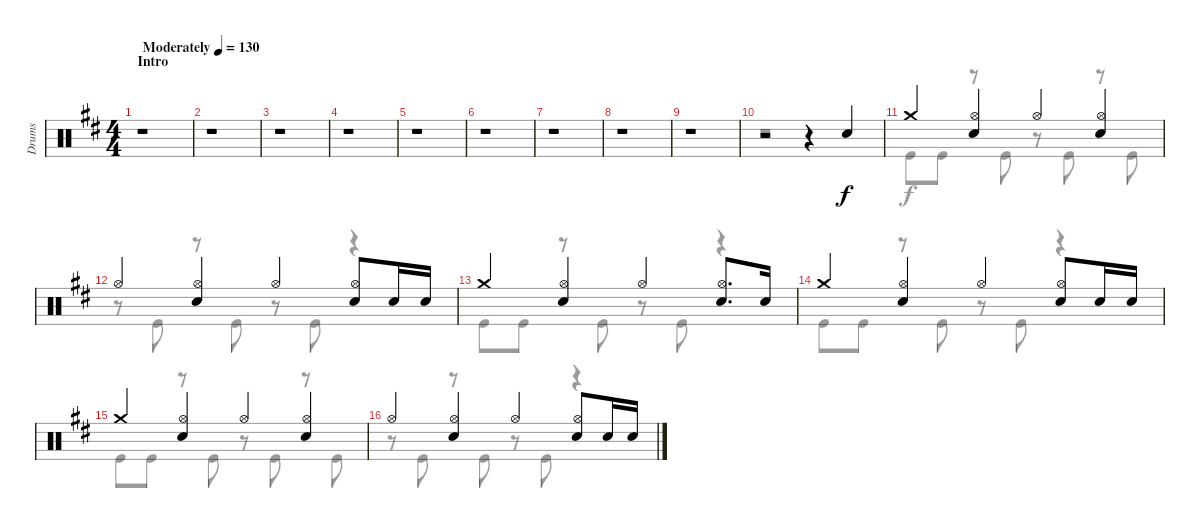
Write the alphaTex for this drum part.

\track ("Drums" "Drums") {instrument percussion}
\staff {score}
\articulation defaults
\voice
\ts (4 4)
\section ("" "Intro")
\tempo (130 "Moderately")
\clef neutral
\ks d
r.1{dy f} |
r.1 |
r.1 |
r.1 |
r.1 |
r.1 |
r.1 |
r.1 |
r.1 |
r.2 r.4 "Electric Snare (hit)".4 |
"Crash medium (hit)".4 ("Hi-Hat (open)" "Electric Snare (hit)").4 "Hi-Hat (open)".4 ("Hi-Hat (open)" "Electric Snare (hit)").4 |
"Hi-Hat (open)".4 ("Hi-Hat (open)" "Electric Snare (hit)").4 "Hi-Hat (open)".4 ("Hi-Hat (open)" "Electric Snare (hit)").8 "Electric Snare (hit)".16 "Electric Snare (hit)".16 |
"Crash medium (hit)".4 ("Hi-Hat (open)" "Electric Snare (hit)").4 "Hi-Hat (open)".4 ("Hi-Hat (open)" "Electric Snare (hit)").8{d} "Electric Snare (hit)".16 |
"Crash medium (hit)".4 ("Hi-Hat (open)" "Electric Snare (hit)").4 "Hi-Hat (open)".4 ("Hi-Hat (open)" "Electric Snare (hit)").8 "Electric Snare (hit)".16 "Electric Snare (hit)".16 |
"Crash medium (hit)".4 ("Hi-Hat (open)" "Electric Snare (hit)").4 "Hi-Hat (open)".4 ("Hi-Hat (open)" "Electric Snare (hit)").4 |
"Hi-Hat (open)".4 ("Hi-Hat (open)" "Electric Snare (hit)").4 "Hi-Hat (open)".4 ("Hi-Hat (open)" "Electric Snare (hit)").8 "Electric Snare (hit)".16 "Electric Snare (hit)".16
\voice
\clef neutral
\ottava regular
\simile none
\ks d
r.1{dy f} |
r.1 |
r.1 |
r.1 |
r.1 |
r.1 |
r.1 |
r.1 |
r.1 |
r.1 |
"Kick (hit)".8 "Kick (hit)".8 r.8 "Kick (hit)".8 r.8 "Kick (hit)".8 r.8 "Kick (hit)".8 |
r.8 "Kick (hit)".8 r.8 "Kick (hit)".8 r.8 "Kick (hit)".8 r.4 |
"Kick (hit)".8 "Kick (hit)".8 r.8 "Kick (hit)".8 r.8 "Kick (hit)".8 r.4 |
"Kick (hit)".8 "Kick (hit)".8 r.8 "Kick (hit)".8 r.8 "Kick (hit)".8 r.4 |
"Kick (hit)".8 "Kick (hit)".8 r.8 "Kick (hit)".8 r.8 "Kick (hit)".8 r.8 "Kick (hit)".8 |
r.8 "Kick (hit)".8 r.8 "Kick (hit)".8 r.8 "Kick (hit)".8 r.4
